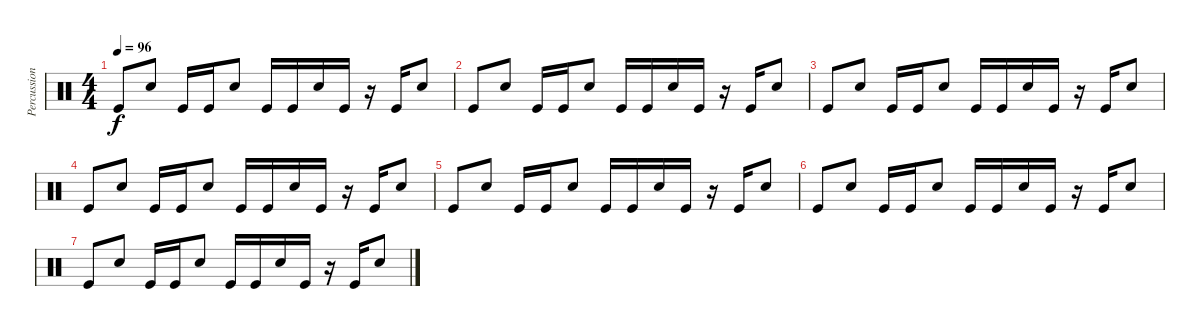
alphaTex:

\track ("Percussion" "Percussion") {instrument percussion}
\staff {score}
\articulation defaults
\ts (4 4)
\tempo 96
\clef neutral
\ks c "Kick (hit)".8{dy f} "Snare (hit) 2".8 "Kick (hit)".16 "Kick (hit)".16 "Snare (hit) 2".8 "Kick (hit)".16 "Kick (hit)".16 "Snare (hit) 2".16 "Kick (hit)".16
r.16 "Kick (hit)".16 "Snare (hit) 2".8 |
"Kick (hit)".8 "Snare (hit) 2".8 "Kick (hit)".16 "Kick (hit)".16 "Snare (hit) 2".8 "Kick (hit)".16 "Kick (hit)".16 "Snare (hit) 2".16 "Kick (hit)".16 r.16 "Kick (hit)".16 "Snare (hit) 2".8 |
"Kick (hit)".8 "Snare (hit) 2".8 "Kick (hit)".16 "Kick (hit)".16 "Snare (hit) 2".8 "Kick (hit)".16 "Kick (hit)".16 "Snare (hit) 2".16 "Kick (hit)".16 r.16 "Kick (hit)".16 "Snare (hit) 2".8 |
"Kick (hit)".8 "Snare (hit) 2".8 "Kick (hit)".16 "Kick (hit)".16 "Snare (hit) 2".8 "Kick (hit)".16 "Kick (hit)".16 "Snare (hit) 2".16 "Kick (hit)".16 r.16 "Kick (hit)".16 "Snare (hit) 2".8 |
"Kick (hit)".8 "Snare (hit) 2".8 "Kick (hit)".16 "Kick (hit)".16 "Snare (hit) 2".8 "Kick (hit)".16 "Kick (hit)".16 "Snare (hit) 2".16 "Kick (hit)".16 r.16 "Kick (hit)".16 "Snare (hit) 2".8 |
"Kick (hit)".8 "Snare (hit) 2".8 "Kick (hit)".16 "Kick (hit)".16 "Snare (hit) 2".8 "Kick (hit)".16 "Kick (hit)".16 "Snare (hit) 2".16 "Kick (hit)".16 r.16 "Kick (hit)".16 "Snare (hit) 2".8 |
"Kick (hit)".8 "Snare (hit) 2".8 "Kick (hit)".16 "Kick (hit)".16 "Snare (hit) 2".8 "Kick (hit)".16 "Kick (hit)".16 "Snare (hit) 2".16 "Kick (hit)".16 r.16 "Kick (hit)".16 "Snare (hit) 2".8
